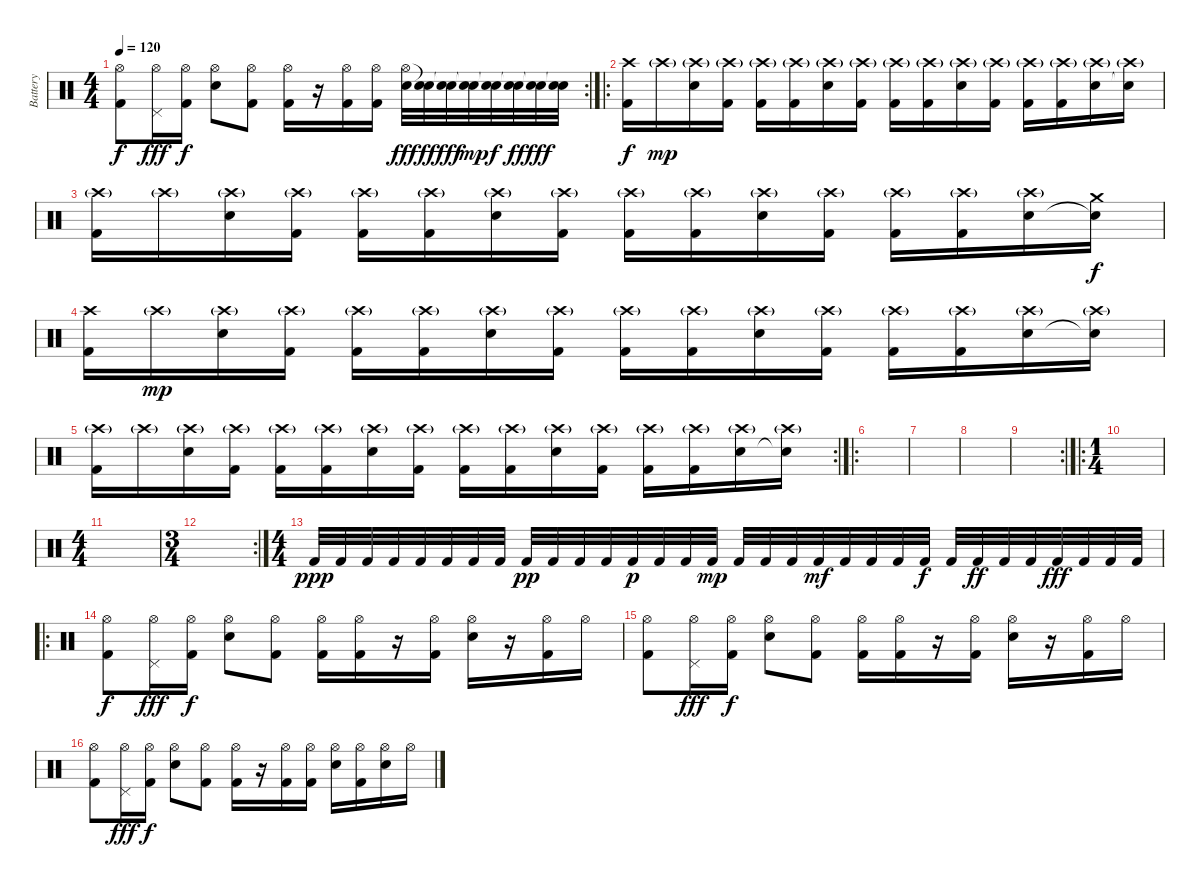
\track ("Battery" "Battery") {instrument percussion}
\staff {score}
\articulation defaults
\rc 2
\ts (4 4)
\tempo 120
\clef neutral
\ks c
("Hi-Hat (open)" "Kick (hit) 2").8{dy f} ("Hi-Hat (open)" "Pedal Hi-Hat (hit)").16{dy fff} ("Hi-Hat (open)" "Kick (hit) 2").16{dy f} ("Hi-Hat (open)" "Electric Snare (hit)").8 ("Hi-Hat (open)" "Kick (hit) 2").8 ("Hi-Hat (open)" "Kick (hit) 2").16 r.16 ("Hi-Hat (open)" "Kick (hit) 2").16 ("Hi-Hat (open)" "Kick (hit) 2").16 ("Hi-Hat (open)" "Electric Snare (hit)").32{dy fff} ("Snare (hit)"{t} "Electric Snare (hit)").32{dy ff} ("Snare (hit)"{t} "Electric Snare (hit)").32{dy fff} ("Snare (hit)"{t} "Electric Snare (hit)").32{dy mp} ("Snare (hit)"{t} "Electric Snare (hit)").32{dy f} ("Snare (hit)"{t} "Electric Snare (hit)").32{dy ff} ("Snare (hit)"{t} "Electric Snare (hit)").32{dy fff} ("Snare (hit)"{t} "Electric Snare (hit)").32 |
\ro
("Crash high (hit)" "Kick (hit) 2").16{dy f} "Crash high (hit)"{g}.16{dy mp} ("Crash high (hit)"{g} "Electric Snare (hit)").16 ("Crash high (hit)"{g} "Kick (hit) 2").16 ("Crash high (hit)"{g} "Kick (hit) 2").16 ("Crash high (hit)"{g} "Kick (hit) 2").16 ("Crash high (hit)"{g} "Electric Snare (hit)").16 ("Crash high (hit)"{g} "Kick (hit) 2").16 ("Crash high (hit)"{g} "Kick (hit) 2").16 ("Crash high (hit)"{g} "Kick (hit) 2").16 ("Crash high (hit)"{g} "Electric Snare (hit)").16 ("Crash high (hit)"{g} "Kick (hit) 2").16 ("Crash high (hit)"{g} "Kick (hit) 2").16 ("Crash high (hit)"{g} "Kick (hit) 2").16 ("Crash high (hit)"{g} "Electric Snare (hit)").16 ("Crash high (hit)"{g} "Electric Snare (hit)"{t}).16 |
("Crash high (hit)"{g} "Kick (hit) 2").16 "Crash high (hit)"{g}.16 ("Crash high (hit)"{g} "Electric Snare (hit)").16 ("Crash high (hit)"{g} "Kick (hit) 2").16 ("Crash high (hit)"{g} "Kick (hit) 2").16 ("Crash high (hit)"{g} "Kick (hit) 2").16 ("Crash high (hit)"{g} "Electric Snare (hit)").16 ("Crash high (hit)"{g} "Kick (hit) 2").16 ("Crash high (hit)"{g} "Kick (hit) 2").16 ("Crash high (hit)"{g} "Kick (hit) 2").16 ("Crash high (hit)"{g} "Electric Snare (hit)").16 ("Crash high (hit)"{g} "Kick (hit) 2").16 ("Crash high (hit)"{g} "Kick (hit) 2").16 ("Crash high (hit)"{g} "Kick (hit) 2").16 ("Crash high (hit)"{g} "Electric Snare (hit)").16 ("Crash medium (hit)" "Electric Snare (hit)"{t}).16{dy f} |
("Crash high (hit)" "Kick (hit) 2").16 "Crash high (hit)"{g}.16{dy mp} ("Crash high (hit)"{g} "Electric Snare (hit)").16 ("Crash high (hit)"{g} "Kick (hit) 2").16 ("Crash high (hit)"{g} "Kick (hit) 2").16 ("Crash high (hit)"{g} "Kick (hit) 2").16 ("Crash high (hit)"{g} "Electric Snare (hit)").16 ("Crash high (hit)"{g} "Kick (hit) 2").16 ("Crash high (hit)"{g} "Kick (hit) 2").16 ("Crash high (hit)"{g} "Kick (hit) 2").16 ("Crash high (hit)"{g} "Electric Snare (hit)").16 ("Crash high (hit)"{g} "Kick (hit) 2").16 ("Crash high (hit)"{g} "Kick (hit) 2").16 ("Crash high (hit)"{g} "Kick (hit) 2").16 ("Crash high (hit)"{g} "Electric Snare (hit)").16 ("Crash high (hit)"{g} "Electric Snare (hit)"{t}).16 |
\rc 2
("Crash high (hit)"{g} "Kick (hit) 2").16 "Crash high (hit)"{g}.16 ("Crash high (hit)"{g} "Electric Snare (hit)").16 ("Crash high (hit)"{g} "Kick (hit) 2").16 ("Crash high (hit)"{g} "Kick (hit) 2").16 ("Crash high (hit)"{g} "Kick (hit) 2").16 ("Crash high (hit)"{g} "Electric Snare (hit)").16 ("Crash high (hit)"{g} "Kick (hit) 2").16 ("Crash high (hit)"{g} "Kick (hit) 2").16 ("Crash high (hit)"{g} "Kick (hit) 2").16 ("Crash high (hit)"{g} "Electric Snare (hit)").16 ("Crash high (hit)"{g} "Kick (hit) 2").16 ("Crash high (hit)"{g} "Kick (hit) 2").16 ("Crash high (hit)"{g} "Kick (hit) 2").16 ("Crash high (hit)"{g} "Electric Snare (hit)").16 ("Crash high (hit)"{g} "Electric Snare (hit)"{t}).16 |
\ro
|
|
|
\rc 2
|
\ro
\ts (1 4)
|
\ts (4 4)
|
\rc 2
\ts (3 4)
|
\ts (4 4)
"Kick (hit) 2".32{dy ppp} "Kick (hit) 2".32 "Kick (hit) 2".32 "Kick (hit) 2".32 "Kick (hit) 2".32 "Kick (hit) 2".32 "Kick (hit) 2".32 "Kick (hit) 2".32 "Kick (hit) 2".32{dy pp} "Kick (hit) 2".32 "Kick (hit) 2".32 "Kick (hit) 2".32 "Kick (hit) 2".32{dy p} "Kick (hit) 2".32 "Kick (hit) 2".32 "Kick (hit) 2".32{dy mp} "Kick (hit) 2".32 "Kick (hit) 2".32 "Kick (hit) 2".32 "Kick (hit) 2".32{dy mf} "Kick (hit) 2".32 "Kick (hit) 2".32 "Kick (hit) 2".32 "Kick (hit) 2".32{dy f} "Kick (hit) 2".32 "Kick (hit) 2".32{dy ff} "Kick (hit) 2".32 "Kick (hit) 2".32 "Kick (hit) 2".32{dy fff} "Kick (hit) 2".32 "Kick (hit) 2".32 "Kick (hit) 2".32 |
\ro
("Hi-Hat (open)" "Kick (hit) 2").8{dy f} ("Hi-Hat (open)" "Pedal Hi-Hat (hit)").16{dy fff} ("Hi-Hat (open)" "Kick (hit) 2").16{dy f} ("Hi-Hat (open)" "Electric Snare (hit)").8 ("Hi-Hat (open)" "Kick (hit) 2").8 ("Hi-Hat (open)" "Kick (hit) 2").16 ("Hi-Hat (open)" "Kick (hit) 2").16 r.16 ("Hi-Hat (open)" "Kick (hit) 2").16 ("Hi-Hat (open)" "Electric Snare (hit)").16 r.16 ("Hi-Hat (open)" "Kick (hit) 2").16 "Hi-Hat (open)".16 |
("Hi-Hat (open)" "Kick (hit) 2").8 ("Hi-Hat (open)" "Pedal Hi-Hat (hit)").16{dy fff} ("Hi-Hat (open)" "Kick (hit) 2").16{dy f} ("Hi-Hat (open)" "Electric Snare (hit)").8 ("Hi-Hat (open)" "Kick (hit) 2").8 ("Hi-Hat (open)" "Kick (hit) 2").16 ("Hi-Hat (open)" "Kick (hit) 2").16 r.16 ("Hi-Hat (open)" "Kick (hit) 2").16 ("Hi-Hat (open)" "Electric Snare (hit)").16 r.16 ("Hi-Hat (open)" "Kick (hit) 2").16 "Hi-Hat (open)".16 |
("Hi-Hat (open)" "Kick (hit) 2").8 ("Hi-Hat (open)" "Pedal Hi-Hat (hit)").16{dy fff} ("Hi-Hat (open)" "Kick (hit) 2").16{dy f} ("Hi-Hat (open)" "Electric Snare (hit)").8 ("Hi-Hat (open)" "Kick (hit) 2").8 ("Hi-Hat (open)" "Kick (hit) 2").16 r.16 ("Hi-Hat (open)" "Kick (hit) 2").16 ("Hi-Hat (open)" "Kick (hit) 2").16 ("Hi-Hat (open)" "Electric Snare (hit)").16 ("Hi-Hat (open)" "Kick (hit) 2").16 ("Hi-Hat (open)" "Electric Snare (hit)").16 "Hi-Hat (open)".16
